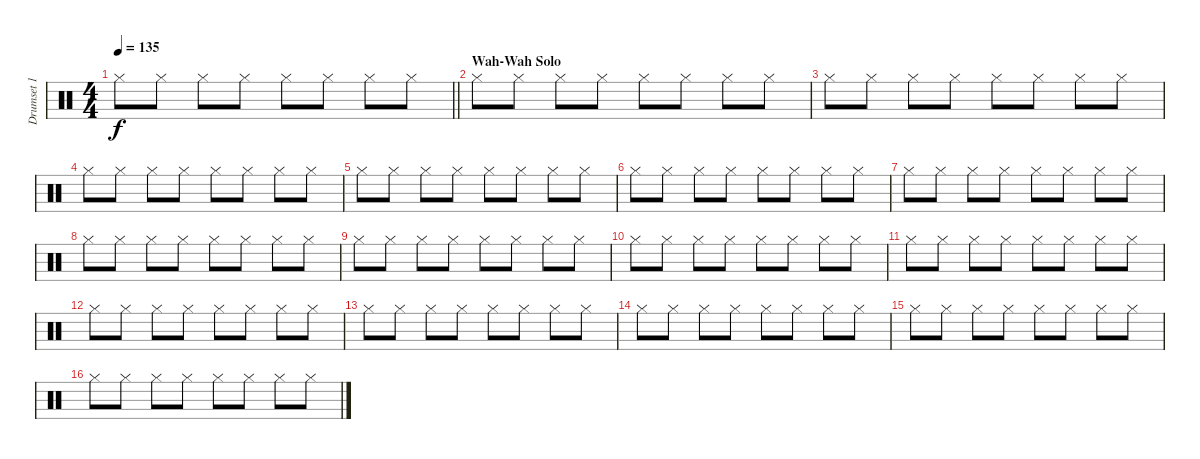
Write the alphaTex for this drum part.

\track ("Drumset 1" "Drumset 1") {instrument percussion}
\staff {score}
\articulation defaults
\ts (4 4)
\tempo 135
\clef neutral
\barLineRight lightlight
\ks c "Hi-Hat (closed)".8{dy f} "Hi-Hat (closed)".8 "Hi-Hat (closed)".8 "Hi-Hat (closed)".8 "Hi-Hat (closed)".8 "Hi-Hat (closed)".8 "Hi-Hat (closed)".8 "Hi-Hat (closed)".8
|
\section ("" "Wah-Wah Solo")
"Hi-Hat (closed)".8 "Hi-Hat (closed)".8 "Hi-Hat (closed)".8 "Hi-Hat (closed)".8 "Hi-Hat (closed)".8 "Hi-Hat (closed)".8 "Hi-Hat (closed)".8 "Hi-Hat (closed)".8 |
"Hi-Hat (closed)".8 "Hi-Hat (closed)".8 "Hi-Hat (closed)".8 "Hi-Hat (closed)".8 "Hi-Hat (closed)".8 "Hi-Hat (closed)".8 "Hi-Hat (closed)".8 "Hi-Hat (closed)".8 |
"Hi-Hat (closed)".8 "Hi-Hat (closed)".8 "Hi-Hat (closed)".8 "Hi-Hat (closed)".8 "Hi-Hat (closed)".8 "Hi-Hat (closed)".8 "Hi-Hat (closed)".8 "Hi-Hat (closed)".8 |
"Hi-Hat (closed)".8 "Hi-Hat (closed)".8 "Hi-Hat (closed)".8 "Hi-Hat (closed)".8 "Hi-Hat (closed)".8 "Hi-Hat (closed)".8 "Hi-Hat (closed)".8 "Hi-Hat (closed)".8 |
"Hi-Hat (closed)".8 "Hi-Hat (closed)".8 "Hi-Hat (closed)".8 "Hi-Hat (closed)".8 "Hi-Hat (closed)".8 "Hi-Hat (closed)".8 "Hi-Hat (closed)".8 "Hi-Hat (closed)".8 |
"Hi-Hat (closed)".8 "Hi-Hat (closed)".8 "Hi-Hat (closed)".8 "Hi-Hat (closed)".8 "Hi-Hat (closed)".8 "Hi-Hat (closed)".8 "Hi-Hat (closed)".8 "Hi-Hat (closed)".8 |
"Hi-Hat (closed)".8 "Hi-Hat (closed)".8 "Hi-Hat (closed)".8 "Hi-Hat (closed)".8 "Hi-Hat (closed)".8 "Hi-Hat (closed)".8 "Hi-Hat (closed)".8 "Hi-Hat (closed)".8 |
"Hi-Hat (closed)".8 "Hi-Hat (closed)".8 "Hi-Hat (closed)".8 "Hi-Hat (closed)".8 "Hi-Hat (closed)".8 "Hi-Hat (closed)".8 "Hi-Hat (closed)".8 "Hi-Hat (closed)".8 |
"Hi-Hat (closed)".8 "Hi-Hat (closed)".8 "Hi-Hat (closed)".8 "Hi-Hat (closed)".8 "Hi-Hat (closed)".8 "Hi-Hat (closed)".8 "Hi-Hat (closed)".8 "Hi-Hat (closed)".8 |
"Hi-Hat (closed)".8 "Hi-Hat (closed)".8 "Hi-Hat (closed)".8 "Hi-Hat (closed)".8 "Hi-Hat (closed)".8 "Hi-Hat (closed)".8 "Hi-Hat (closed)".8 "Hi-Hat (closed)".8 |
"Hi-Hat (closed)".8 "Hi-Hat (closed)".8 "Hi-Hat (closed)".8 "Hi-Hat (closed)".8 "Hi-Hat (closed)".8 "Hi-Hat (closed)".8 "Hi-Hat (closed)".8 "Hi-Hat (closed)".8 |
"Hi-Hat (closed)".8 "Hi-Hat (closed)".8 "Hi-Hat (closed)".8 "Hi-Hat (closed)".8 "Hi-Hat (closed)".8 "Hi-Hat (closed)".8 "Hi-Hat (closed)".8 "Hi-Hat (closed)".8 |
"Hi-Hat (closed)".8 "Hi-Hat (closed)".8 "Hi-Hat (closed)".8 "Hi-Hat (closed)".8 "Hi-Hat (closed)".8 "Hi-Hat (closed)".8 "Hi-Hat (closed)".8 "Hi-Hat (closed)".8 |
"Hi-Hat (closed)".8 "Hi-Hat (closed)".8 "Hi-Hat (closed)".8 "Hi-Hat (closed)".8 "Hi-Hat (closed)".8 "Hi-Hat (closed)".8 "Hi-Hat (closed)".8 "Hi-Hat (closed)".8 |
"Hi-Hat (closed)".8 "Hi-Hat (closed)".8 "Hi-Hat (closed)".8 "Hi-Hat (closed)".8 "Hi-Hat (closed)".8 "Hi-Hat (closed)".8 "Hi-Hat (closed)".8 "Hi-Hat (closed)".8
